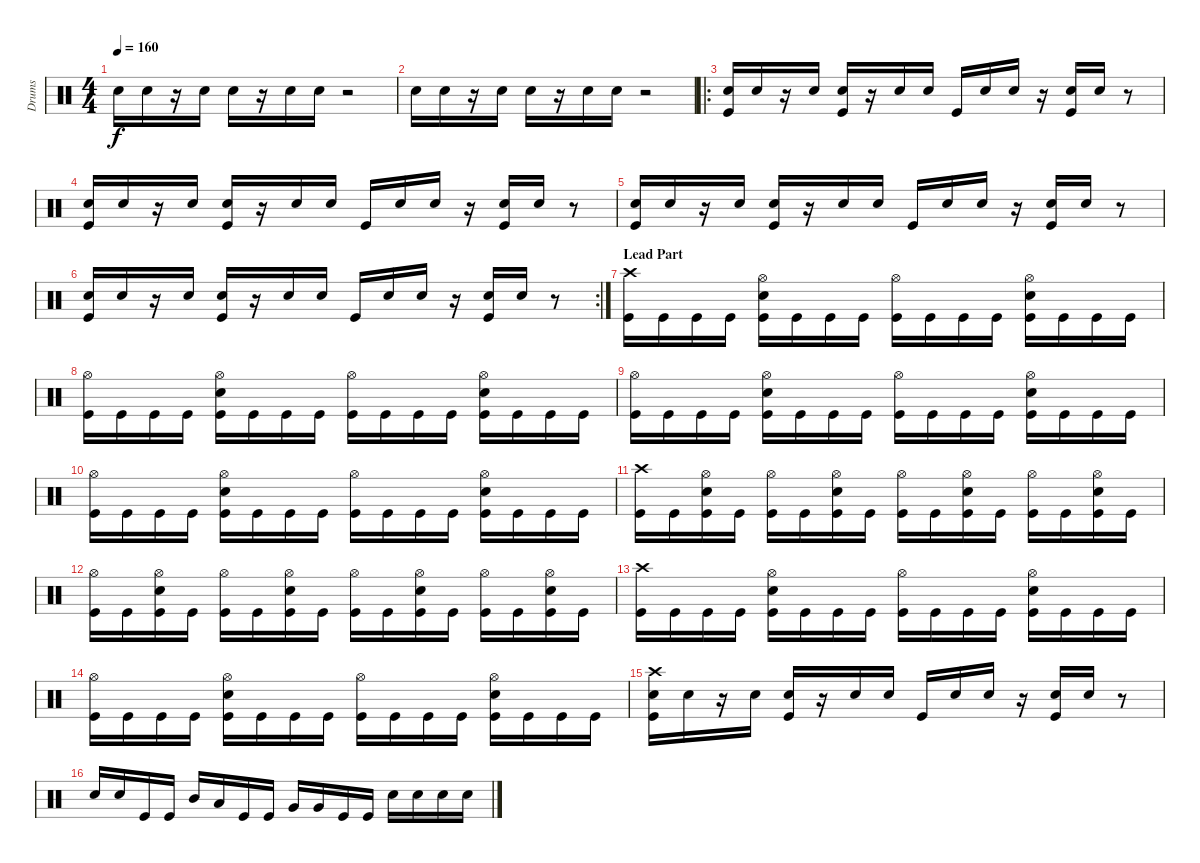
\track ("Drums" "Drums") {instrument percussion}
\staff {score}
\articulation defaults
\ts (4 4)
\tempo 160
\clef neutral
\ks c "Electric Snare (hit)".16{dy f} "Electric Snare (hit)".16
r.16 "Electric Snare (hit)".16 "Electric Snare (hit)".16 r.16 "Electric Snare (hit)".16 "Electric Snare (hit)".16 r.2 |
"Electric Snare (hit)".16 "Electric Snare (hit)".16 r.16 "Electric Snare (hit)".16 "Electric Snare (hit)".16 r.16 "Electric Snare (hit)".16 "Electric Snare (hit)".16 r.2 |
\ro
("Electric Snare (hit)" "Kick (hit)").16 "Electric Snare (hit)".16 r.16 "Electric Snare (hit)".16 ("Electric Snare (hit)" "Kick (hit)").16 r.16 "Electric Snare (hit)".16 "Electric Snare (hit)".16 "Kick (hit)".16 "Electric Snare (hit)".16 "Electric Snare (hit)".16 r.16 ("Electric Snare (hit)" "Kick (hit)").16 "Electric Snare (hit)".16 r.8 |
("Electric Snare (hit)" "Kick (hit)").16 "Electric Snare (hit)".16 r.16 "Electric Snare (hit)".16 ("Electric Snare (hit)" "Kick (hit)").16 r.16 "Electric Snare (hit)".16 "Electric Snare (hit)".16 "Kick (hit)".16 "Electric Snare (hit)".16 "Electric Snare (hit)".16 r.16 ("Electric Snare (hit)" "Kick (hit)").16 "Electric Snare (hit)".16 r.8 |
("Electric Snare (hit)" "Kick (hit)").16 "Electric Snare (hit)".16 r.16 "Electric Snare (hit)".16 ("Electric Snare (hit)" "Kick (hit)").16 r.16 "Electric Snare (hit)".16 "Electric Snare (hit)".16 "Kick (hit)".16 "Electric Snare (hit)".16 "Electric Snare (hit)".16 r.16 ("Electric Snare (hit)" "Kick (hit)").16 "Electric Snare (hit)".16 r.8 |
\rc 2
("Electric Snare (hit)" "Kick (hit)").16 "Electric Snare (hit)".16 r.16 "Electric Snare (hit)".16 ("Electric Snare (hit)" "Kick (hit)").16 r.16 "Electric Snare (hit)".16 "Electric Snare (hit)".16 "Kick (hit)".16 "Electric Snare (hit)".16 "Electric Snare (hit)".16 r.16 ("Electric Snare (hit)" "Kick (hit)").16 "Electric Snare (hit)".16 r.8 |
\section ("" "Lead Part")
("Crash high (hit)" "Kick (hit)").16 "Kick (hit)".16 "Kick (hit)".16 "Kick (hit)".16 ("Hi-Hat (open)" "Electric Snare (hit)" "Kick (hit)").16 "Kick (hit)".16 "Kick (hit)".16 "Kick (hit)".16 ("Hi-Hat (open)" "Kick (hit)").16 "Kick (hit)".16 "Kick (hit)".16 "Kick (hit)".16 ("Hi-Hat (open)" "Electric Snare (hit)" "Kick (hit)").16 "Kick (hit)".16 "Kick (hit)".16 "Kick (hit)".16 |
("Hi-Hat (open)" "Kick (hit)").16 "Kick (hit)".16 "Kick (hit)".16 "Kick (hit)".16 ("Hi-Hat (open)" "Electric Snare (hit)" "Kick (hit)").16 "Kick (hit)".16 "Kick (hit)".16 "Kick (hit)".16 ("Hi-Hat (open)" "Kick (hit)").16 "Kick (hit)".16 "Kick (hit)".16 "Kick (hit)".16 ("Hi-Hat (open)" "Electric Snare (hit)" "Kick (hit)").16 "Kick (hit)".16 "Kick (hit)".16 "Kick (hit)".16 |
("Hi-Hat (open)" "Kick (hit)").16 "Kick (hit)".16 "Kick (hit)".16 "Kick (hit)".16 ("Hi-Hat (open)" "Electric Snare (hit)" "Kick (hit)").16 "Kick (hit)".16 "Kick (hit)".16 "Kick (hit)".16 ("Hi-Hat (open)" "Kick (hit)").16 "Kick (hit)".16 "Kick (hit)".16 "Kick (hit)".16 ("Hi-Hat (open)" "Electric Snare (hit)" "Kick (hit)").16 "Kick (hit)".16 "Kick (hit)".16 "Kick (hit)".16 |
("Hi-Hat (open)" "Kick (hit)").16 "Kick (hit)".16 "Kick (hit)".16 "Kick (hit)".16 ("Hi-Hat (open)" "Electric Snare (hit)" "Kick (hit)").16 "Kick (hit)".16 "Kick (hit)".16 "Kick (hit)".16 ("Hi-Hat (open)" "Kick (hit)").16 "Kick (hit)".16 "Kick (hit)".16 "Kick (hit)".16 ("Hi-Hat (open)" "Electric Snare (hit)" "Kick (hit)").16 "Kick (hit)".16 "Kick (hit)".16 "Kick (hit)".16 |
("Crash high (hit)" "Kick (hit)").16 "Kick (hit)".16 ("Hi-Hat (open)" "Electric Snare (hit)" "Kick (hit)").16 "Kick (hit)".16 ("Hi-Hat (open)" "Kick (hit)").16 "Kick (hit)".16 ("Hi-Hat (open)" "Electric Snare (hit)" "Kick (hit)").16 "Kick (hit)".16 ("Hi-Hat (open)" "Kick (hit)").16 "Kick (hit)".16 ("Hi-Hat (open)" "Electric Snare (hit)" "Kick (hit)").16 "Kick (hit)".16 ("Hi-Hat (open)" "Kick (hit)").16 "Kick (hit)".16 ("Hi-Hat (open)" "Electric Snare (hit)" "Kick (hit)").16 "Kick (hit)".16 |
("Hi-Hat (open)" "Kick (hit)").16 "Kick (hit)".16 ("Hi-Hat (open)" "Electric Snare (hit)" "Kick (hit)").16 "Kick (hit)".16 ("Hi-Hat (open)" "Kick (hit)").16 "Kick (hit)".16 ("Hi-Hat (open)" "Electric Snare (hit)" "Kick (hit)").16 "Kick (hit)".16 ("Hi-Hat (open)" "Kick (hit)").16 "Kick (hit)".16 ("Hi-Hat (open)" "Electric Snare (hit)" "Kick (hit)").16 "Kick (hit)".16 ("Hi-Hat (open)" "Kick (hit)").16 "Kick (hit)".16 ("Hi-Hat (open)" "Electric Snare (hit)" "Kick (hit)").16 "Kick (hit)".16 |
("Crash high (hit)" "Kick (hit)").16 "Kick (hit)".16 "Kick (hit)".16 "Kick (hit)".16 ("Hi-Hat (open)" "Electric Snare (hit)" "Kick (hit)").16 "Kick (hit)".16 "Kick (hit)".16 "Kick (hit)".16 ("Hi-Hat (open)" "Kick (hit)").16 "Kick (hit)".16 "Kick (hit)".16 "Kick (hit)".16 ("Hi-Hat (open)" "Electric Snare (hit)" "Kick (hit)").16 "Kick (hit)".16 "Kick (hit)".16 "Kick (hit)".16 |
("Hi-Hat (open)" "Kick (hit)").16 "Kick (hit)".16 "Kick (hit)".16 "Kick (hit)".16 ("Hi-Hat (open)" "Electric Snare (hit)" "Kick (hit)").16 "Kick (hit)".16 "Kick (hit)".16 "Kick (hit)".16 ("Hi-Hat (open)" "Kick (hit)").16 "Kick (hit)".16 "Kick (hit)".16 "Kick (hit)".16 ("Hi-Hat (open)" "Electric Snare (hit)" "Kick (hit)").16 "Kick (hit)".16 "Kick (hit)".16 "Kick (hit)".16 |
("Crash high (hit)" "Electric Snare (hit)" "Kick (hit)").16 "Electric Snare (hit)".16 r.16 "Electric Snare (hit)".16 ("Electric Snare (hit)" "Kick (hit)").16 r.16 "Electric Snare (hit)".16 "Electric Snare (hit)".16 "Kick (hit)".16 "Electric Snare (hit)".16 "Electric Snare (hit)".16 r.16 ("Electric Snare (hit)" "Kick (hit)").16 "Electric Snare (hit)".16 r.8 |
"Electric Snare (hit)".16 "Electric Snare (hit)".16 "Kick (hit)".16 "Kick (hit)".16 "Mid Tom (hit)".16 "Low Tom (hit)".16 "Kick (hit)".16 "Kick (hit)".16 "Very Low Tom (hit)".16 "Very Low Tom (hit)".16 "Kick (hit)".16 "Kick (hit)".16 "Electric Snare (hit)".16 "Electric Snare (hit)".16 "Electric Snare (hit)".16 "Electric Snare (hit)".16
